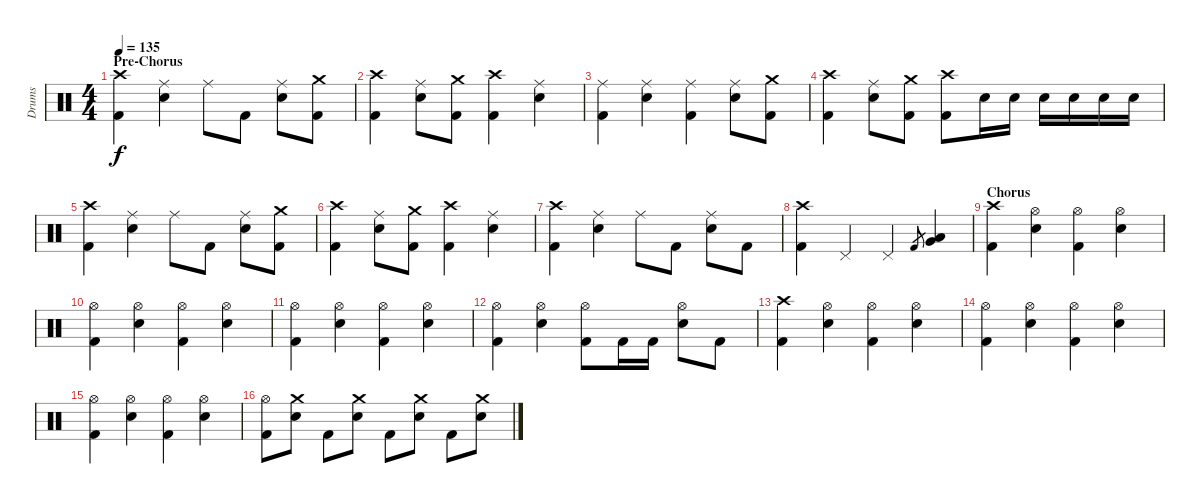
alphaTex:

\track ("Drums" "Drums") {instrument percussion}
\staff {score}
\articulation defaults
\ts (4 4)
\section ("" "Pre-Chorus")
\tempo 135
\clef neutral
\ks c
("Crash high (hit)" "Kick (hit) 2").4{dy f} ("Ride (middle)" "Snare (hit) 2").4 "Ride (middle)".8 "Kick (hit) 2".8 ("Ride (middle)" "Snare (hit) 2").8 ("Crash medium (hit)" "Kick (hit) 2").8 |
("Crash high (hit)" "Kick (hit) 2").4 ("Ride (middle)" "Snare (hit) 2").8 ("Crash medium (hit)" "Kick (hit) 2").8 ("Crash high (hit)" "Kick (hit) 2").4 ("Ride (middle)" "Snare (hit) 2").4 |
("Ride (middle)" "Kick (hit) 2").4 ("Ride (middle)" "Snare (hit) 2").4 ("Ride (middle)" "Kick (hit) 2").4 ("Ride (middle)" "Snare (hit) 2").8 ("Crash medium (hit)" "Kick (hit) 2").8 |
("Crash high (hit)" "Kick (hit) 2").4 ("Ride (middle)" "Snare (hit) 2").8 ("Crash medium (hit)" "Kick (hit) 2").8 ("Crash high (hit)" "Kick (hit) 2").8 "Snare (hit) 2".16 "Snare (hit) 2".16 "Snare (hit) 2".16 "Snare (hit) 2".16 "Snare (hit) 2".16 "Snare (hit) 2".16 |
("Crash high (hit)" "Kick (hit) 2").4 ("Ride (middle)" "Snare (hit) 2").4 "Ride (middle)".8 "Kick (hit) 2".8 ("Ride (middle)" "Snare (hit) 2").8 ("Crash medium (hit)" "Kick (hit) 2").8 |
("Crash high (hit)" "Kick (hit) 2").4 ("Ride (middle)" "Snare (hit) 2").8 ("Crash medium (hit)" "Kick (hit) 2").8 ("Crash high (hit)" "Kick (hit) 2").4 ("Ride (middle)" "Snare (hit) 2").4 |
("Crash high (hit)" "Kick (hit) 2").4 ("Ride (middle)" "Snare (hit) 2").4 "Ride (middle)".8 "Kick (hit) 2".8 ("Ride (middle)" "Snare (hit) 2").8 "Kick (hit) 2".8 |
("Crash high (hit)" "Kick (hit) 2").4 "Pedal Hi-Hat (hit)".4 "Pedal Hi-Hat (hit)".4 "Kick (hit) 2".8{gr} ("Very Low Tom (hit)" "Low Tom (hit)").4 |
\section ("" "Chorus")
("Crash high (hit)" "Kick (hit) 2").4 ("Hi-Hat (open)" "Snare (hit) 2").4 ("Hi-Hat (open)" "Kick (hit) 2").4 ("Hi-Hat (open)" "Snare (hit) 2").4 |
("Hi-Hat (open)" "Kick (hit) 2").4 ("Hi-Hat (open)" "Snare (hit) 2").4 ("Hi-Hat (open)" "Kick (hit) 2").4 ("Hi-Hat (open)" "Snare (hit) 2").4 |
("Hi-Hat (open)" "Kick (hit) 2").4 ("Hi-Hat (open)" "Snare (hit) 2").4 ("Hi-Hat (open)" "Kick (hit) 2").4 ("Hi-Hat (open)" "Snare (hit) 2").4 |
("Hi-Hat (open)" "Kick (hit) 2").4 ("Hi-Hat (open)" "Snare (hit) 2").4 ("Hi-Hat (open)" "Kick (hit) 2").8 "Kick (hit) 2".16 "Kick (hit) 2".16 ("Hi-Hat (open)" "Snare (hit) 2").8 "Kick (hit) 2".8 |
("Crash high (hit)" "Kick (hit) 2").4 ("Hi-Hat (open)" "Snare (hit) 2").4 ("Hi-Hat (open)" "Kick (hit) 2").4 ("Hi-Hat (open)" "Snare (hit) 2").4 |
("Hi-Hat (open)" "Kick (hit) 2").4 ("Hi-Hat (open)" "Snare (hit) 2").4 ("Hi-Hat (open)" "Kick (hit) 2").4 ("Hi-Hat (open)" "Snare (hit) 2").4 |
("Hi-Hat (open)" "Kick (hit) 2").4 ("Hi-Hat (open)" "Snare (hit) 2").4 ("Hi-Hat (open)" "Kick (hit) 2").4 ("Hi-Hat (open)" "Snare (hit) 2").4 |
("Hi-Hat (open)" "Kick (hit) 2").8 ("Crash medium (hit)" "Snare (hit) 2").8 "Kick (hit) 2".8 ("Crash medium (hit)" "Snare (hit) 2").8 "Kick (hit) 2".8 ("Crash medium (hit)" "Snare (hit) 2").8 "Kick (hit) 2".8 ("Crash medium (hit)" "Snare (hit) 2").8
